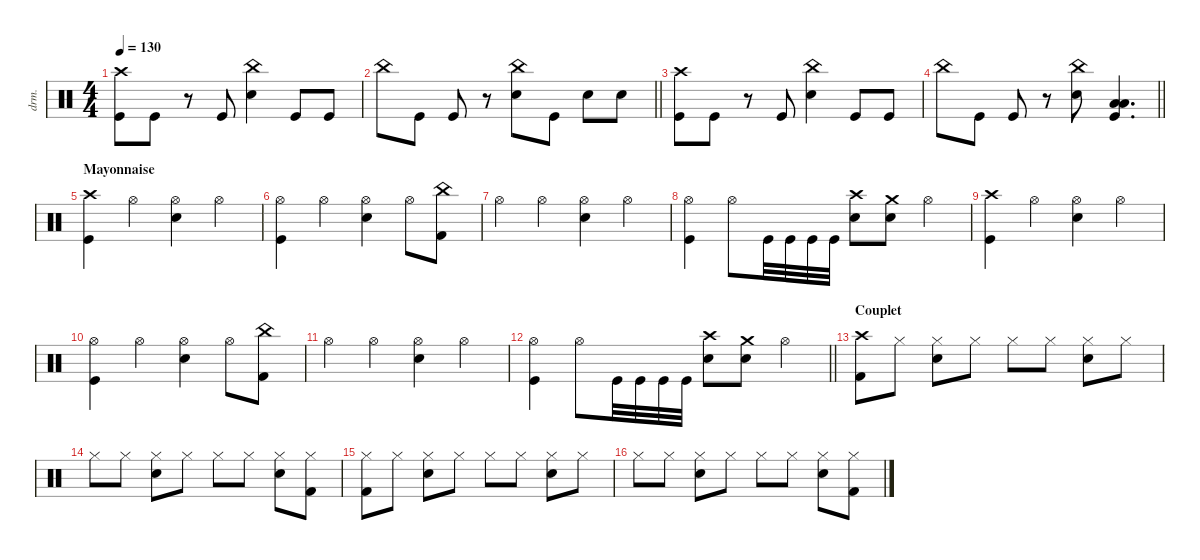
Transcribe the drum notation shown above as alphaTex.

\defaultSystemsLayout 4
\hideDynamics
\bracketExtendMode nobrackets
\track ("Manouche" "drm.") {instrument percussion}
\staff {score}
\articulation defaults
\ts (4 4)
\tempo 130
\clef neutral
\ks c
("Crash high (hit)" "Kick (hit)").8{dy f} "Kick (hit)".8 r.8 "Kick (hit)".8 ("China (hit)" "Snare (hit) 2").4 "Kick (hit)".8 "Kick (hit)".8 |
\barLineRight lightlight "China (hit)".8 "Kick (hit)".8 "Kick (hit)".8
r.8 ("China (hit)" "Snare (hit) 2").8 "Kick (hit)".8 "Snare (hit) 2".8 "Snare (hit) 2".8 |
("Crash high (hit)" "Kick (hit)").8 "Kick (hit)".8 r.8 "Kick (hit)".8 ("China (hit)" "Snare (hit) 2").4 "Kick (hit)".8 "Kick (hit)".8 |
\barLineRight lightlight "China (hit)".8 "Kick (hit)".8 "Kick (hit)".8
r.8 ("China (hit)" "Snare (hit) 2").8 ("Low Tom (hit)" "Kick (hit)" "Low Floor Tom (hit)").4{d dy ff} |
\section ("" "Mayonnaise")
("Crash high (hit)" "Kick (hit)").4{dy f} "Hi-Hat (open)".4 ("Hi-Hat (open)" "Snare (hit) 2").4 "Hi-Hat (open)".4 |
("Hi-Hat (open)" "Kick (hit)").4 "Hi-Hat (open)".4 ("Hi-Hat (open)" "Snare (hit) 2").4 "Hi-Hat (open)".8 ("China (hit)" "Kick (hit) 2").8 |
"Hi-Hat (open)".4 "Hi-Hat (open)".4 ("Hi-Hat (open)" "Snare (hit) 2").4 "Hi-Hat (open)".4 |
("Hi-Hat (open)" "Kick (hit)").4 "Hi-Hat (open)".8 "Kick (hit)".32 "Kick (hit)".32 "Kick (hit)".32 "Kick (hit)".32 ("Snare (hit) 2" "Crash high (hit)").8 ("Crash medium (hit)" "Snare (hit) 2").8 "Hi-Hat (open)".4 |
("Crash high (hit)" "Kick (hit)").4 "Hi-Hat (open)".4 ("Hi-Hat (open)" "Snare (hit) 2").4 "Hi-Hat (open)".4 |
("Hi-Hat (open)" "Kick (hit)").4 "Hi-Hat (open)".4 ("Hi-Hat (open)" "Snare (hit) 2").4 "Hi-Hat (open)".8 ("China (hit)" "Kick (hit) 2").8 |
"Hi-Hat (open)".4 "Hi-Hat (open)".4 ("Hi-Hat (open)" "Snare (hit) 2").4 "Hi-Hat (open)".4 |
\barLineRight lightlight
("Hi-Hat (open)" "Kick (hit)").4 "Hi-Hat (open)".8 "Kick (hit)".32 "Kick (hit)".32 "Kick (hit)".32 "Kick (hit)".32 ("Snare (hit) 2" "Crash high (hit)").8 ("Crash medium (hit)" "Snare (hit) 2").8 "Hi-Hat (open)".4 |
\section ("" "Couplet")
("Crash high (hit)" "Kick (hit) 2").8 "Hi-Hat (closed)".8{dy mp} ("Hi-Hat (closed)" "Snare (hit) 2").8{dy f} "Hi-Hat (closed)".8{dy mp} "Hi-Hat (closed)".8{dy f} "Hi-Hat (closed)".8{dy mp} ("Hi-Hat (closed)" "Snare (hit) 2").8{dy f} "Hi-Hat (closed)".8{dy mp} |
"Hi-Hat (closed)".8{dy f} "Hi-Hat (closed)".8{dy mp} ("Hi-Hat (closed)" "Snare (hit) 2").8{dy f} "Hi-Hat (closed)".8{dy mp} "Hi-Hat (closed)".8{dy f} "Hi-Hat (closed)".8{dy mp} ("Hi-Hat (closed)" "Snare (hit) 2").8{dy f} ("Hi-Hat (closed)" "Kick (hit) 2").8{dy mp} |
("Hi-Hat (closed)" "Kick (hit) 2").8 "Hi-Hat (closed)".8 ("Hi-Hat (closed)" "Snare (hit) 2").8{dy f} "Hi-Hat (closed)".8{dy mp} "Hi-Hat (closed)".8{dy f} "Hi-Hat (closed)".8{dy mp} ("Hi-Hat (closed)" "Snare (hit) 2").8{dy f} "Hi-Hat (closed)".8{dy mp} |
"Hi-Hat (closed)".8{dy f} "Hi-Hat (closed)".8{dy mp} ("Hi-Hat (closed)" "Snare (hit) 2").8{dy f} "Hi-Hat (closed)".8{dy mp} "Hi-Hat (closed)".8{dy f} "Hi-Hat (closed)".8{dy mp} ("Hi-Hat (closed)" "Snare (hit) 2").8{dy f} ("Hi-Hat (closed)" "Kick (hit) 2").8{dy mp}
